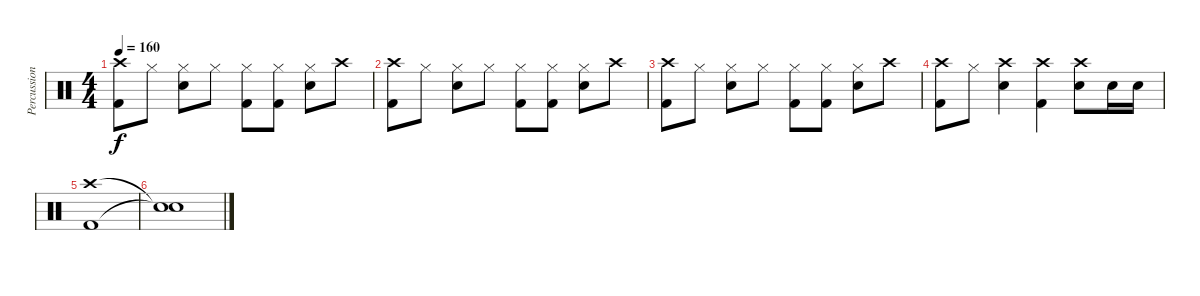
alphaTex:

\track ("Percussion" "Percussion") {instrument percussion}
\staff {score}
\articulation defaults
\ts (4 4)
\tempo 160
\clef neutral
\ks c
("Crash high (hit)" "Kick (hit) 2").8{dy f} "Hi-Hat (closed)".8 ("Hi-Hat (closed)" "Snare (hit) 2").8 "Hi-Hat (closed)".8 ("Hi-Hat (closed)" "Kick (hit) 2").8 ("Hi-Hat (closed)" "Kick (hit) 2").8 ("Hi-Hat (closed)" "Snare (hit) 2").8 "Crash high (hit)".8 |
("Crash high (hit)" "Kick (hit) 2").8 "Hi-Hat (closed)".8 ("Hi-Hat (closed)" "Snare (hit) 2").8 "Hi-Hat (closed)".8 ("Hi-Hat (closed)" "Kick (hit) 2").8 ("Hi-Hat (closed)" "Kick (hit) 2").8 ("Hi-Hat (closed)" "Snare (hit) 2").8 "Crash high (hit)".8 |
("Crash high (hit)" "Kick (hit) 2").8 "Hi-Hat (closed)".8 ("Hi-Hat (closed)" "Snare (hit) 2").8 "Hi-Hat (closed)".8 ("Hi-Hat (closed)" "Kick (hit) 2").8 ("Hi-Hat (closed)" "Kick (hit) 2").8 ("Hi-Hat (closed)" "Snare (hit) 2").8 "Crash high (hit)".8 |
("Crash high (hit)" "Kick (hit) 2").8 "Hi-Hat (closed)".8 ("Crash high (hit)" "Snare (hit) 2").4 ("Crash high (hit)" "Kick (hit) 2").4 ("Crash high (hit)" "Snare (hit) 2").8 "Snare (hit) 2".16 "Snare (hit) 2".16 |
("Crash high (hit)" "Kick (hit) 2").1 |
("Snare (hit)"{t} "Snare (hit)"{t}).1
